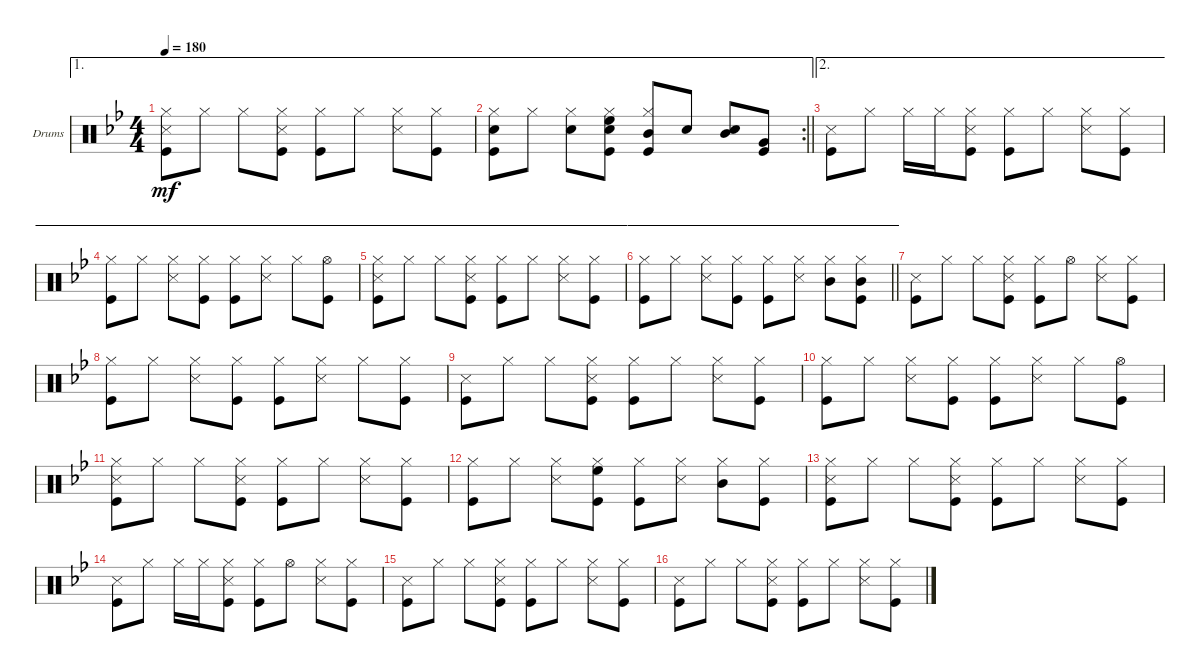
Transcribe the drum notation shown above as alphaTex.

\bracketExtendMode groupsimilarinstruments
\firstSystemTrackNameOrientation horizontal
\otherSystemsTrackNameOrientation horizontal
\track ("Drums   (BB)" "Drums") {instrument percussion}
\staff {score}
\articulation defaults
\ae 1
\ts (4 4)
\tempo 180
\clef neutral
\ks bb
("Kick (hit)" "Hi-Hat (closed)" "Snare (side stick) 3").8{dy mf} "Hi-Hat (closed)".8 "Hi-Hat (closed)".8 ("Kick (hit)" "Hi-Hat (closed)" "Snare (side stick) 3").8 ("Kick (hit)" "Hi-Hat (closed)").8 "Hi-Hat (closed)".8 ("Hi-Hat (closed)" "Snare (side stick) 3").8 ("Kick (hit)" "Hi-Hat (closed)").8 |
\ae 1
\rc 2
\barLineRight lightlight
("Kick (hit)" "Snare (hit) 2" "Hi-Hat (closed)").8 "Hi-Hat (closed)".8 ("Snare (hit) 2" "Hi-Hat (closed)").8 ("Kick (hit)" "Snare (hit) 2" "Hi-Hat (closed)" "High Floor Tom (hit)").8 ("Kick (hit)" "Hi-Hat (closed)" "Mid Tom (hit)").8 "Snare (hit) 2".8 ("Snare (hit) 2" "Mid Tom (hit)").8 ("Kick (hit)" "Very Low Tom (hit)").8 |
\ae 2
("Kick (hit)" "Snare (side stick) 3").8 "Hi-Hat (closed)".8 "Hi-Hat (closed)".16 "Hi-Hat (closed)".16 ("Kick (hit)" "Hi-Hat (closed)" "Snare (side stick) 3").8 ("Kick (hit)" "Hi-Hat (closed)").8 "Hi-Hat (closed)".8 ("Hi-Hat (closed)" "Snare (side stick) 3").8 ("Kick (hit)" "Hi-Hat (closed)").8 |
\ae 2
("Kick (hit)" "Hi-Hat (closed)").8 "Hi-Hat (closed)".8 ("Hi-Hat (closed)" "Snare (side stick) 3").8 ("Kick (hit)" "Hi-Hat (closed)").8 ("Kick (hit)" "Hi-Hat (closed)").8 ("Hi-Hat (closed)" "Snare (side stick) 3").8 "Hi-Hat (closed)".8 ("Kick (hit)" "Hi-Hat (open)").8 |
\ae 2
("Kick (hit)" "Hi-Hat (closed)" "Snare (side stick) 3").8 "Hi-Hat (closed)".8 "Hi-Hat (closed)".8 ("Kick (hit)" "Hi-Hat (closed)" "Snare (side stick) 3").8 ("Kick (hit)" "Hi-Hat (closed)").8 "Hi-Hat (closed)".8 ("Hi-Hat (closed)" "Snare (side stick) 3").8 ("Kick (hit)" "Hi-Hat (closed)").8 |
\ae 2
\barLineRight lightlight
("Kick (hit)" "Hi-Hat (closed)").8 "Hi-Hat (closed)".8 ("Hi-Hat (closed)" "Snare (side stick) 3").8 ("Kick (hit)" "Hi-Hat (closed)").8 ("Kick (hit)" "Hi-Hat (closed)").8 ("Hi-Hat (closed)" "Snare (side stick) 3").8 ("Hi-Hat (closed)" "Mid Tom (hit)").8 ("Kick (hit)" "Hi-Hat (closed)" "Mid Tom (hit)").8 |
("Kick (hit)" "Snare (side stick) 3").8 "Hi-Hat (closed)".8 "Hi-Hat (closed)".8 ("Kick (hit)" "Hi-Hat (closed)" "Snare (side stick) 3").8 ("Kick (hit)" "Hi-Hat (closed)").8 "Hi-Hat (open)".8 ("Hi-Hat (closed)" "Snare (side stick) 3").8 ("Kick (hit)" "Hi-Hat (closed)").8 |
("Kick (hit)" "Hi-Hat (closed)").8 "Hi-Hat (closed)".8 ("Hi-Hat (closed)" "Snare (side stick) 3").8 ("Kick (hit)" "Hi-Hat (closed)").8 ("Kick (hit)" "Hi-Hat (closed)").8 ("Hi-Hat (closed)" "Snare (side stick) 3").8 "Hi-Hat (closed)".8 ("Kick (hit)" "Hi-Hat (closed)").8 |
("Kick (hit)" "Snare (side stick) 3").8 "Hi-Hat (closed)".8 "Hi-Hat (closed)".8 ("Kick (hit)" "Hi-Hat (closed)" "Snare (side stick) 3").8 ("Kick (hit)" "Hi-Hat (closed)").8 "Hi-Hat (closed)".8 ("Hi-Hat (closed)" "Snare (side stick) 3").8 ("Kick (hit)" "Hi-Hat (closed)").8 |
("Kick (hit)" "Hi-Hat (closed)").8 "Hi-Hat (closed)".8 ("Hi-Hat (closed)" "Snare (side stick) 3").8 ("Kick (hit)" "Hi-Hat (closed)").8 ("Kick (hit)" "Hi-Hat (closed)").8 ("Hi-Hat (closed)" "Snare (side stick) 3").8 "Hi-Hat (closed)".8 ("Kick (hit)" "Hi-Hat (open)").8 |
("Kick (hit)" "Hi-Hat (closed)" "Snare (side stick) 3").8 "Hi-Hat (closed)".8 "Hi-Hat (closed)".8 ("Kick (hit)" "Hi-Hat (closed)" "Snare (side stick) 3").8 ("Kick (hit)" "Hi-Hat (closed)").8 "Hi-Hat (closed)".8 ("Hi-Hat (closed)" "Snare (side stick) 3").8 ("Kick (hit)" "Hi-Hat (closed)").8 |
("Kick (hit)" "Hi-Hat (closed)").8 "Hi-Hat (closed)".8 ("Hi-Hat (closed)" "Snare (side stick) 3").8 ("Kick (hit)" "Hi-Hat (closed)" "High Floor Tom (hit)").8 ("Kick (hit)" "Hi-Hat (closed)").8 ("Hi-Hat (closed)" "Snare (side stick) 3").8 ("Hi-Hat (closed)" "Mid Tom (hit)").8 ("Kick (hit)" "Hi-Hat (closed)").8 |
("Kick (hit)" "Hi-Hat (closed)" "Snare (side stick) 3").8 "Hi-Hat (closed)".8 "Hi-Hat (closed)".8 ("Kick (hit)" "Hi-Hat (closed)" "Snare (side stick) 3").8 ("Kick (hit)" "Hi-Hat (closed)").8 "Hi-Hat (closed)".8 ("Hi-Hat (closed)" "Snare (side stick) 3").8 ("Kick (hit)" "Hi-Hat (closed)").8 |
("Kick (hit)" "Snare (side stick) 3").8 "Hi-Hat (closed)".8 "Hi-Hat (closed)".16 "Hi-Hat (closed)".16 ("Kick (hit)" "Hi-Hat (closed)" "Snare (side stick) 3").8 ("Kick (hit)" "Hi-Hat (closed)").8 "Hi-Hat (open)".8 ("Hi-Hat (closed)" "Snare (side stick) 3").8 ("Kick (hit)" "Hi-Hat (closed)").8 |
("Kick (hit)" "Snare (side stick) 3").8 "Hi-Hat (closed)".8 "Hi-Hat (closed)".8 ("Kick (hit)" "Hi-Hat (closed)" "Snare (side stick) 3").8 ("Kick (hit)" "Hi-Hat (closed)").8 "Hi-Hat (closed)".8 ("Hi-Hat (closed)" "Snare (side stick) 3").8 ("Kick (hit)" "Hi-Hat (closed)").8 |
("Kick (hit)" "Snare (side stick) 3").8 "Hi-Hat (closed)".8 "Hi-Hat (closed)".8 ("Kick (hit)" "Hi-Hat (closed)" "Snare (side stick) 3").8 ("Kick (hit)" "Hi-Hat (closed)").8 "Hi-Hat (closed)".8 ("Hi-Hat (closed)" "Snare (side stick) 3").8 ("Kick (hit)" "Hi-Hat (closed)").8
